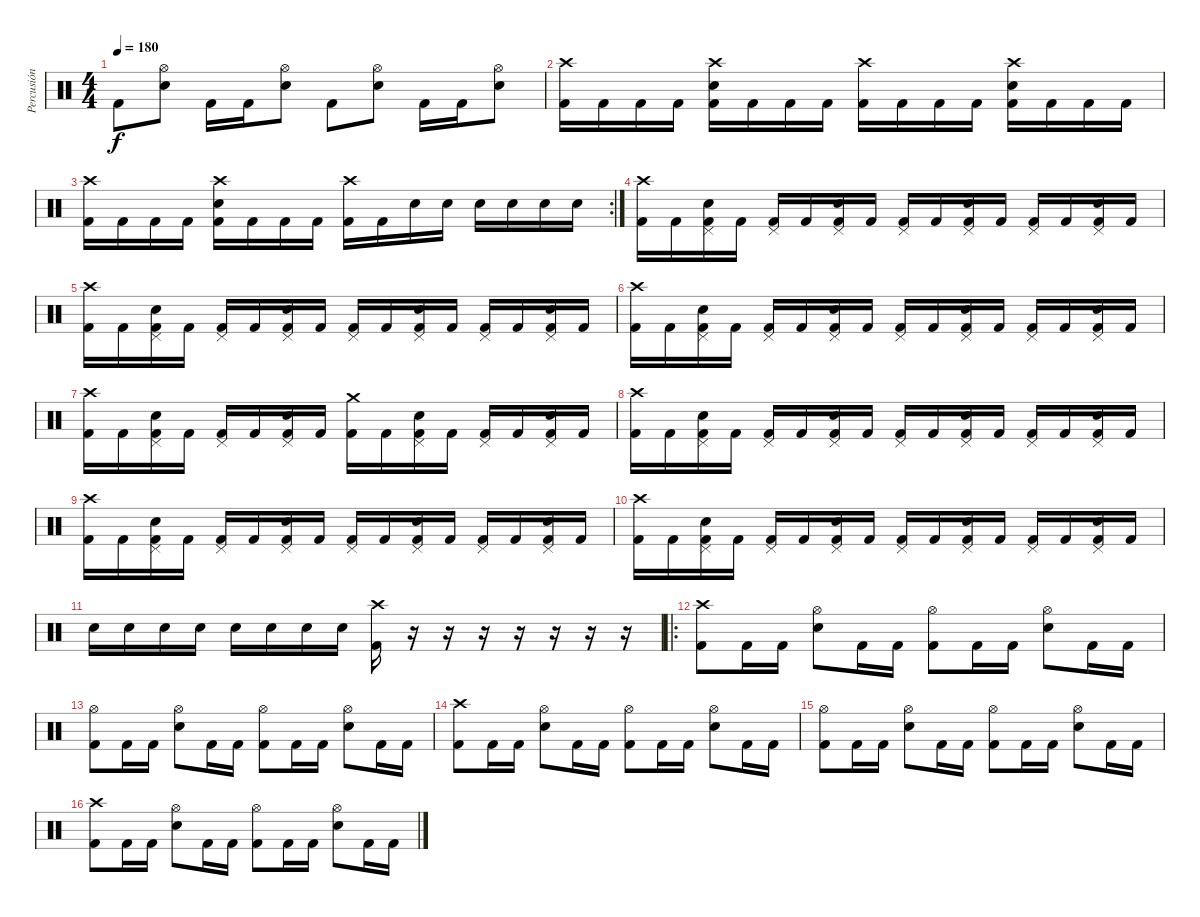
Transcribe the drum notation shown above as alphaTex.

\track ("Percusión" "Percusión") {instrument percussion}
\staff {score}
\articulation defaults
\ts (4 4)
\tempo 180
\clef neutral
\ks c "Kick (hit) 2".8{dy f}
("Hi-Hat (open)" "Electric Snare (hit)").8 "Kick (hit) 2".16 "Kick (hit) 2".16 ("Hi-Hat (open)" "Electric Snare (hit)").8 "Kick (hit) 2".8 ("Hi-Hat (open)" "Electric Snare (hit)").8 "Kick (hit) 2".16 "Kick (hit) 2".16 ("Hi-Hat (open)" "Electric Snare (hit)").8 |
("Crash high (hit)" "Kick (hit) 2").16 "Kick (hit) 2".16 "Kick (hit) 2".16 "Kick (hit) 2".16 ("Crash high (hit)" "Kick (hit) 2" "Electric Snare (hit)").16 "Kick (hit) 2".16 "Kick (hit) 2".16 "Kick (hit) 2".16 ("Crash high (hit)" "Kick (hit) 2").16 "Kick (hit) 2".16 "Kick (hit) 2".16 "Kick (hit) 2".16 ("Crash high (hit)" "Kick (hit) 2" "Electric Snare (hit)").16 "Kick (hit) 2".16 "Kick (hit) 2".16 "Kick (hit) 2".16 |
\rc 2
("Crash high (hit)" "Kick (hit) 2").16 "Kick (hit) 2".16 "Kick (hit) 2".16 "Kick (hit) 2".16 ("Crash high (hit)" "Kick (hit) 2" "Electric Snare (hit)").16 "Kick (hit) 2".16 "Kick (hit) 2".16 "Kick (hit) 2".16 ("Crash high (hit)" "Kick (hit) 2").16 "Kick (hit) 2".16 "Electric Snare (hit)".16 "Electric Snare (hit)".16 "Electric Snare (hit)".16 "Electric Snare (hit)".16 "Electric Snare (hit)".16 "Electric Snare (hit)".16 |
("Crash high (hit)" "Kick (hit) 2").16 "Kick (hit) 2".16 ("Pedal Hi-Hat (hit)" "Kick (hit) 2" "Electric Snare (hit)").16 "Kick (hit) 2".16 ("Pedal Hi-Hat (hit)" "Kick (hit) 2").16 "Kick (hit) 2".16 ("Pedal Hi-Hat (hit)" "Kick (hit) 2" "Electric Snare (hit)").16 "Kick (hit) 2".16 ("Pedal Hi-Hat (hit)" "Kick (hit) 2").16 "Kick (hit) 2".16 ("Pedal Hi-Hat (hit)" "Kick (hit) 2" "Electric Snare (hit)").16 "Kick (hit) 2".16 ("Pedal Hi-Hat (hit)" "Kick (hit) 2").16 "Kick (hit) 2".16 ("Pedal Hi-Hat (hit)" "Kick (hit) 2" "Electric Snare (hit)").16 "Kick (hit) 2".16 |
("Crash high (hit)" "Kick (hit) 2").16 "Kick (hit) 2".16 ("Pedal Hi-Hat (hit)" "Kick (hit) 2" "Electric Snare (hit)").16 "Kick (hit) 2".16 ("Pedal Hi-Hat (hit)" "Kick (hit) 2").16 "Kick (hit) 2".16 ("Pedal Hi-Hat (hit)" "Kick (hit) 2" "Electric Snare (hit)").16 "Kick (hit) 2".16 ("Pedal Hi-Hat (hit)" "Kick (hit) 2").16 "Kick (hit) 2".16 ("Pedal Hi-Hat (hit)" "Kick (hit) 2" "Electric Snare (hit)").16 "Kick (hit) 2".16 ("Pedal Hi-Hat (hit)" "Kick (hit) 2").16 "Kick (hit) 2".16 ("Pedal Hi-Hat (hit)" "Kick (hit) 2" "Electric Snare (hit)").16 "Kick (hit) 2".16 |
("Crash high (hit)" "Kick (hit) 2").16 "Kick (hit) 2".16 ("Pedal Hi-Hat (hit)" "Kick (hit) 2" "Electric Snare (hit)").16 "Kick (hit) 2".16 ("Pedal Hi-Hat (hit)" "Kick (hit) 2").16 "Kick (hit) 2".16 ("Pedal Hi-Hat (hit)" "Kick (hit) 2" "Electric Snare (hit)").16 "Kick (hit) 2".16 ("Pedal Hi-Hat (hit)" "Kick (hit) 2").16 "Kick (hit) 2".16 ("Pedal Hi-Hat (hit)" "Kick (hit) 2" "Electric Snare (hit)").16 "Kick (hit) 2".16 ("Pedal Hi-Hat (hit)" "Kick (hit) 2").16 "Kick (hit) 2".16 ("Pedal Hi-Hat (hit)" "Kick (hit) 2" "Electric Snare (hit)").16 "Kick (hit) 2".16 |
("Crash high (hit)" "Kick (hit) 2").16 "Kick (hit) 2".16 ("Pedal Hi-Hat (hit)" "Kick (hit) 2" "Electric Snare (hit)").16 "Kick (hit) 2".16 ("Pedal Hi-Hat (hit)" "Kick (hit) 2").16 "Kick (hit) 2".16 ("Pedal Hi-Hat (hit)" "Kick (hit) 2" "Electric Snare (hit)").16 "Kick (hit) 2".16 ("Crash medium (hit)" "Kick (hit) 2").16 "Kick (hit) 2".16 ("Pedal Hi-Hat (hit)" "Kick (hit) 2" "Electric Snare (hit)").16 "Kick (hit) 2".16 ("Pedal Hi-Hat (hit)" "Kick (hit) 2").16 "Kick (hit) 2".16 ("Pedal Hi-Hat (hit)" "Kick (hit) 2" "Electric Snare (hit)").16 "Kick (hit) 2".16 |
("Crash high (hit)" "Kick (hit) 2").16 "Kick (hit) 2".16 ("Pedal Hi-Hat (hit)" "Kick (hit) 2" "Electric Snare (hit)").16 "Kick (hit) 2".16 ("Pedal Hi-Hat (hit)" "Kick (hit) 2").16 "Kick (hit) 2".16 ("Pedal Hi-Hat (hit)" "Kick (hit) 2" "Electric Snare (hit)").16 "Kick (hit) 2".16 ("Pedal Hi-Hat (hit)" "Kick (hit) 2").16 "Kick (hit) 2".16 ("Pedal Hi-Hat (hit)" "Kick (hit) 2" "Electric Snare (hit)").16 "Kick (hit) 2".16 ("Pedal Hi-Hat (hit)" "Kick (hit) 2").16 "Kick (hit) 2".16 ("Pedal Hi-Hat (hit)" "Kick (hit) 2" "Electric Snare (hit)").16 "Kick (hit) 2".16 |
("Crash high (hit)" "Kick (hit) 2").16 "Kick (hit) 2".16 ("Pedal Hi-Hat (hit)" "Kick (hit) 2" "Electric Snare (hit)").16 "Kick (hit) 2".16 ("Pedal Hi-Hat (hit)" "Kick (hit) 2").16 "Kick (hit) 2".16 ("Pedal Hi-Hat (hit)" "Kick (hit) 2" "Electric Snare (hit)").16 "Kick (hit) 2".16 ("Pedal Hi-Hat (hit)" "Kick (hit) 2").16 "Kick (hit) 2".16 ("Pedal Hi-Hat (hit)" "Kick (hit) 2" "Electric Snare (hit)").16 "Kick (hit) 2".16 ("Pedal Hi-Hat (hit)" "Kick (hit) 2").16 "Kick (hit) 2".16 ("Pedal Hi-Hat (hit)" "Kick (hit) 2" "Electric Snare (hit)").16 "Kick (hit) 2".16 |
("Crash high (hit)" "Kick (hit) 2").16 "Kick (hit) 2".16 ("Pedal Hi-Hat (hit)" "Kick (hit) 2" "Electric Snare (hit)").16 "Kick (hit) 2".16 ("Pedal Hi-Hat (hit)" "Kick (hit) 2").16 "Kick (hit) 2".16 ("Pedal Hi-Hat (hit)" "Kick (hit) 2" "Electric Snare (hit)").16 "Kick (hit) 2".16 ("Pedal Hi-Hat (hit)" "Kick (hit) 2").16 "Kick (hit) 2".16 ("Pedal Hi-Hat (hit)" "Kick (hit) 2" "Electric Snare (hit)").16 "Kick (hit) 2".16 ("Pedal Hi-Hat (hit)" "Kick (hit) 2").16 "Kick (hit) 2".16 ("Pedal Hi-Hat (hit)" "Kick (hit) 2" "Electric Snare (hit)").16 "Kick (hit) 2".16 |
"Electric Snare (hit)".16 "Electric Snare (hit)".16 "Electric Snare (hit)".16 "Electric Snare (hit)".16 "Electric Snare (hit)".16 "Electric Snare (hit)".16 "Electric Snare (hit)".16 "Electric Snare (hit)".16 ("Crash high (hit)" "Kick (hit) 2").16 r.16 r.16 r.16 r.16 r.16 r.16 r.16 |
\ro
("Crash high (hit)" "Kick (hit) 2").8 "Kick (hit) 2".16 "Kick (hit) 2".16 ("Hi-Hat (open)" "Electric Snare (hit)").8 "Kick (hit) 2".16 "Kick (hit) 2".16 ("Hi-Hat (open)" "Kick (hit) 2").8 "Kick (hit) 2".16 "Kick (hit) 2".16 ("Hi-Hat (open)" "Electric Snare (hit)").8 "Kick (hit) 2".16 "Kick (hit) 2".16 |
("Hi-Hat (open)" "Kick (hit) 2").8 "Kick (hit) 2".16 "Kick (hit) 2".16 ("Hi-Hat (open)" "Electric Snare (hit)").8 "Kick (hit) 2".16 "Kick (hit) 2".16 ("Hi-Hat (open)" "Kick (hit) 2").8 "Kick (hit) 2".16 "Kick (hit) 2".16 ("Hi-Hat (open)" "Electric Snare (hit)").8 "Kick (hit) 2".16 "Kick (hit) 2".16 |
("Crash high (hit)" "Kick (hit) 2").8 "Kick (hit) 2".16 "Kick (hit) 2".16 ("Hi-Hat (open)" "Electric Snare (hit)").8 "Kick (hit) 2".16 "Kick (hit) 2".16 ("Hi-Hat (open)" "Kick (hit) 2").8 "Kick (hit) 2".16 "Kick (hit) 2".16 ("Hi-Hat (open)" "Electric Snare (hit)").8 "Kick (hit) 2".16 "Kick (hit) 2".16 |
("Hi-Hat (open)" "Kick (hit) 2").8 "Kick (hit) 2".16 "Kick (hit) 2".16 ("Hi-Hat (open)" "Electric Snare (hit)").8 "Kick (hit) 2".16 "Kick (hit) 2".16 ("Hi-Hat (open)" "Kick (hit) 2").8 "Kick (hit) 2".16 "Kick (hit) 2".16 ("Hi-Hat (open)" "Electric Snare (hit)").8 "Kick (hit) 2".16 "Kick (hit) 2".16 |
("Crash high (hit)" "Kick (hit) 2").8 "Kick (hit) 2".16 "Kick (hit) 2".16 ("Hi-Hat (open)" "Electric Snare (hit)").8 "Kick (hit) 2".16 "Kick (hit) 2".16 ("Hi-Hat (open)" "Kick (hit) 2").8 "Kick (hit) 2".16 "Kick (hit) 2".16 ("Hi-Hat (open)" "Electric Snare (hit)").8 "Kick (hit) 2".16 "Kick (hit) 2".16
